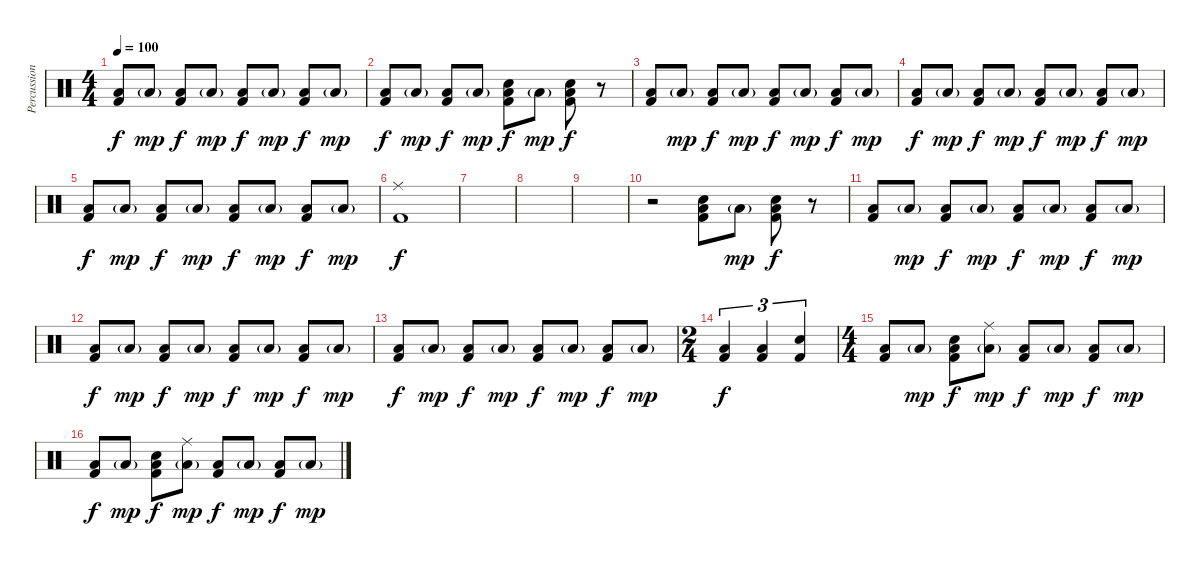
\track ("Percussion" "Percussion") {instrument percussion}
\staff {score}
\articulation defaults
\ts (4 4)
\tempo 100
\clef neutral
\ks c
("Low Floor Tom (hit)" "Kick (hit) 2").8{dy f} "Low Floor Tom (hit)"{g}.8{dy mp} ("Low Floor Tom (hit)" "Kick (hit) 2").8{dy f} "Low Floor Tom (hit)"{g}.8{dy mp} ("Low Floor Tom (hit)" "Kick (hit) 2").8{dy f} "Low Floor Tom (hit)"{g}.8{dy mp} ("Low Floor Tom (hit)" "Kick (hit) 2").8{dy f} "Low Floor Tom (hit)"{g}.8{dy mp} |
("Low Floor Tom (hit)" "Kick (hit) 2").8{dy f} "Low Floor Tom (hit)"{g}.8{dy mp} ("Low Floor Tom (hit)" "Kick (hit) 2").8{dy f} "Low Floor Tom (hit)"{g}.8{dy mp} ("Snare (hit) 2" "Low Floor Tom (hit)" "Kick (hit) 2").8{dy f} "Low Floor Tom (hit)"{g}.8{dy mp} ("Snare (hit) 2" "Low Floor Tom (hit)" "Kick (hit) 2").8{dy f} r.8 |
("Low Floor Tom (hit)" "Kick (hit) 2").8 "Low Floor Tom (hit)"{g}.8{dy mp} ("Low Floor Tom (hit)" "Kick (hit) 2").8{dy f} "Low Floor Tom (hit)"{g}.8{dy mp} ("Low Floor Tom (hit)" "Kick (hit) 2").8{dy f} "Low Floor Tom (hit)"{g}.8{dy mp} ("Low Floor Tom (hit)" "Kick (hit) 2").8{dy f} "Low Floor Tom (hit)"{g}.8{dy mp} |
("Low Floor Tom (hit)" "Kick (hit) 2").8{dy f} "Low Floor Tom (hit)"{g}.8{dy mp} ("Low Floor Tom (hit)" "Kick (hit) 2").8{dy f} "Low Floor Tom (hit)"{g}.8{dy mp} ("Low Floor Tom (hit)" "Kick (hit) 2").8{dy f} "Low Floor Tom (hit)"{g}.8{dy mp} ("Low Floor Tom (hit)" "Kick (hit) 2").8{dy f} "Low Floor Tom (hit)"{g}.8{dy mp} |
("Low Floor Tom (hit)" "Kick (hit) 2").8{dy f} "Low Floor Tom (hit)"{g}.8{dy mp} ("Low Floor Tom (hit)" "Kick (hit) 2").8{dy f} "Low Floor Tom (hit)"{g}.8{dy mp} ("Low Floor Tom (hit)" "Kick (hit) 2").8{dy f} "Low Floor Tom (hit)"{g}.8{dy mp} ("Low Floor Tom (hit)" "Kick (hit) 2").8{dy f} "Low Floor Tom (hit)"{g}.8{dy mp} |
("Ride (middle)" "Kick (hit) 2").1{dy f} |
|
|
|
r.2 ("Snare (hit) 2" "Low Floor Tom (hit)" "Kick (hit) 2").8 "Low Floor Tom (hit)"{g}.8{dy mp} ("Snare (hit) 2" "Low Floor Tom (hit)" "Kick (hit) 2").8{dy f} r.8 |
("Low Floor Tom (hit)" "Kick (hit) 2").8 "Low Floor Tom (hit)"{g}.8{dy mp} ("Low Floor Tom (hit)" "Kick (hit) 2").8{dy f} "Low Floor Tom (hit)"{g}.8{dy mp} ("Low Floor Tom (hit)" "Kick (hit) 2").8{dy f} "Low Floor Tom (hit)"{g}.8{dy mp} ("Low Floor Tom (hit)" "Kick (hit) 2").8{dy f} "Low Floor Tom (hit)"{g}.8{dy mp} |
("Low Floor Tom (hit)" "Kick (hit) 2").8{dy f} "Low Floor Tom (hit)"{g}.8{dy mp} ("Low Floor Tom (hit)" "Kick (hit) 2").8{dy f} "Low Floor Tom (hit)"{g}.8{dy mp} ("Low Floor Tom (hit)" "Kick (hit) 2").8{dy f} "Low Floor Tom (hit)"{g}.8{dy mp} ("Low Floor Tom (hit)" "Kick (hit) 2").8{dy f} "Low Floor Tom (hit)"{g}.8{dy mp} |
("Low Floor Tom (hit)" "Kick (hit) 2").8{dy f} "Low Floor Tom (hit)"{g}.8{dy mp} ("Low Floor Tom (hit)" "Kick (hit) 2").8{dy f} "Low Floor Tom (hit)"{g}.8{dy mp} ("Low Floor Tom (hit)" "Kick (hit) 2").8{dy f} "Low Floor Tom (hit)"{g}.8{dy mp} ("Low Floor Tom (hit)" "Kick (hit) 2").8{dy f} "Low Floor Tom (hit)"{g}.8{dy mp} |
\ts (2 4)
("Low Floor Tom (hit)" "Kick (hit) 2").4{tu (3 2) dy f} ("Low Floor Tom (hit)" "Kick (hit) 2").4{tu (3 2)} ("Snare (hit) 2" "Kick (hit) 2").4{tu (3 2)} |
\ts (4 4)
("Low Floor Tom (hit)" "Kick (hit) 2").8 "Low Floor Tom (hit)"{g}.8{dy mp} ("Snare (hit) 2" "Low Floor Tom (hit)" "Kick (hit) 2").8{dy f} ("Ride (middle)" "Low Floor Tom (hit)"{g}).8{dy mp} ("Low Floor Tom (hit)" "Kick (hit) 2").8{dy f} "Low Floor Tom (hit)"{g}.8{dy mp} ("Low Floor Tom (hit)" "Kick (hit) 2").8{dy f} "Low Floor Tom (hit)"{g}.8{dy mp} |
("Low Floor Tom (hit)" "Kick (hit) 2").8{dy f} "Low Floor Tom (hit)"{g}.8{dy mp} ("Snare (hit) 2" "Low Floor Tom (hit)" "Kick (hit) 2").8{dy f} ("Ride (middle)" "Low Floor Tom (hit)"{g}).8{dy mp} ("Low Floor Tom (hit)" "Kick (hit) 2").8{dy f} "Low Floor Tom (hit)"{g}.8{dy mp} ("Low Floor Tom (hit)" "Kick (hit) 2").8{dy f} "Low Floor Tom (hit)"{g}.8{dy mp}
